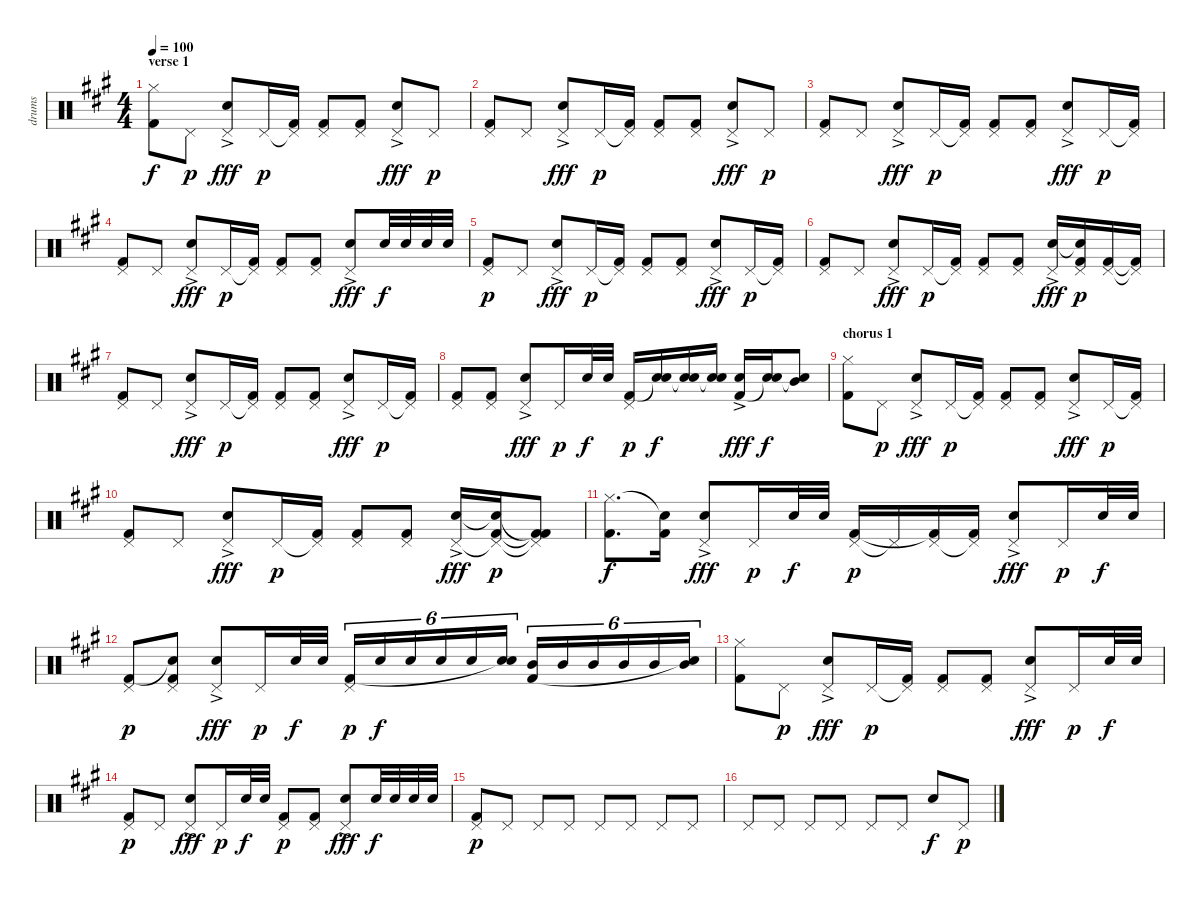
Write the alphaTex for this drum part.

\track ("drums" "drums") {instrument percussion}
\staff {score}
\articulation defaults
\ts (4 4)
\section ("" "verse 1")
\tempo 100
\clef neutral
\ks a
("Hi-Hat (closed)" "Kick (hit) 2").8{dy f} "Pedal Hi-Hat (hit)".8{dy p} ("Pedal Hi-Hat (hit)" "Snare (hit) 2"{ac}).8{dy fff} "Pedal Hi-Hat (hit)".16{dy p} ("Pedal Hi-Hat (hit)"{t} "Kick (hit) 2").16 ("Pedal Hi-Hat (hit)" "Kick (hit) 2").8 ("Pedal Hi-Hat (hit)" "Kick (hit) 2").8 ("Pedal Hi-Hat (hit)" "Snare (hit) 2"{ac}).8{dy fff} "Pedal Hi-Hat (hit)".8{dy p} |
("Pedal Hi-Hat (hit)" "Kick (hit) 2").8 "Pedal Hi-Hat (hit)".8 ("Pedal Hi-Hat (hit)" "Snare (hit) 2"{ac}).8{dy fff} "Pedal Hi-Hat (hit)".16{dy p} ("Pedal Hi-Hat (hit)"{t} "Kick (hit) 2").16 ("Pedal Hi-Hat (hit)" "Kick (hit) 2").8 ("Pedal Hi-Hat (hit)" "Kick (hit) 2").8 ("Pedal Hi-Hat (hit)" "Snare (hit) 2"{ac}).8{dy fff} "Pedal Hi-Hat (hit)".8{dy p} |
("Pedal Hi-Hat (hit)" "Kick (hit) 2").8 "Pedal Hi-Hat (hit)".8 ("Pedal Hi-Hat (hit)" "Snare (hit) 2"{ac}).8{dy fff} "Pedal Hi-Hat (hit)".16{dy p} ("Pedal Hi-Hat (hit)"{t} "Kick (hit) 2").16 ("Pedal Hi-Hat (hit)" "Kick (hit) 2").8 ("Pedal Hi-Hat (hit)" "Kick (hit) 2").8 ("Pedal Hi-Hat (hit)" "Snare (hit) 2"{ac}).8{dy fff} "Pedal Hi-Hat (hit)".16{dy p} ("Pedal Hi-Hat (hit)"{t} "Kick (hit) 2").16 |
("Pedal Hi-Hat (hit)" "Kick (hit) 2").8 "Pedal Hi-Hat (hit)".8 ("Pedal Hi-Hat (hit)" "Snare (hit) 2"{ac}).8{dy fff} "Pedal Hi-Hat (hit)".16{dy p} ("Pedal Hi-Hat (hit)"{t} "Kick (hit) 2").16 ("Pedal Hi-Hat (hit)" "Kick (hit) 2").8 ("Pedal Hi-Hat (hit)" "Kick (hit) 2").8 ("Pedal Hi-Hat (hit)" "Snare (hit) 2"{ac}).8{dy fff} "Snare (hit) 2".32{dy f} "Snare (hit) 2".32 "Snare (hit) 2".32 "Snare (hit) 2".32 |
("Pedal Hi-Hat (hit)" "Kick (hit) 2").8{dy p} "Pedal Hi-Hat (hit)".8 ("Pedal Hi-Hat (hit)" "Snare (hit) 2"{ac}).8{dy fff} "Pedal Hi-Hat (hit)".16{dy p} ("Pedal Hi-Hat (hit)"{t} "Kick (hit) 2").16 ("Pedal Hi-Hat (hit)" "Kick (hit) 2").8 ("Pedal Hi-Hat (hit)" "Kick (hit) 2").8 ("Pedal Hi-Hat (hit)" "Snare (hit) 2"{ac}).8{dy fff} "Pedal Hi-Hat (hit)".16{dy p} ("Pedal Hi-Hat (hit)"{t} "Kick (hit) 2").16 |
("Pedal Hi-Hat (hit)" "Kick (hit) 2").8 "Pedal Hi-Hat (hit)".8 ("Pedal Hi-Hat (hit)" "Snare (hit) 2"{ac}).8{dy fff} "Pedal Hi-Hat (hit)".16{dy p} ("Pedal Hi-Hat (hit)"{t} "Kick (hit) 2").16 ("Pedal Hi-Hat (hit)" "Kick (hit) 2").8 ("Pedal Hi-Hat (hit)" "Kick (hit) 2").8 ("Pedal Hi-Hat (hit)" "Snare (hit) 2"{ac}).16{dy fff} ("Pedal Hi-Hat (hit)" "Snare (hit)"{t} "Kick (hit) 2").16{dy p} ("Pedal Hi-Hat (hit)" "Kick (hit) 2").16 ("Pedal Hi-Hat (hit)"{t} "Kick (hit) 2"{t}).16 |
("Pedal Hi-Hat (hit)" "Kick (hit) 2").8 "Pedal Hi-Hat (hit)".8 ("Pedal Hi-Hat (hit)" "Snare (hit) 2"{ac}).8{dy fff} "Pedal Hi-Hat (hit)".16{dy p} ("Pedal Hi-Hat (hit)"{t} "Kick (hit) 2").16 ("Pedal Hi-Hat (hit)" "Kick (hit) 2").8 ("Pedal Hi-Hat (hit)" "Kick (hit) 2").8 ("Pedal Hi-Hat (hit)" "Snare (hit) 2"{ac}).8{dy fff} "Pedal Hi-Hat (hit)".16{dy p} ("Pedal Hi-Hat (hit)"{t} "Kick (hit) 2").16 |
("Pedal Hi-Hat (hit)" "Kick (hit) 2").8 ("Pedal Hi-Hat (hit)" "Kick (hit) 2").8 ("Pedal Hi-Hat (hit)" "Snare (hit) 2"{ac}).8{dy fff} "Pedal Hi-Hat (hit)".16{dy p} "Snare (hit) 2".32{dy f} "Snare (hit) 2".32 ("Pedal Hi-Hat (hit)" "Kick (hit) 2").16{dy p} ("Snare (hit) 2" "Snare (hit)"{t}).16{dy f} ("Snare (hit) 2" "Snare (hit)"{t}).16 ("Snare (hit) 2" "Snare (hit)"{t}).16 ("Snare (hit) 2"{ac} "Kick (hit) 2").16{dy fff} ("Snare (hit) 2" "Snare (hit)"{t}).16{dy f} ("Mid Tom (hit)" "Snare (hit)"{t}).8 |
\section ("" "chorus 1")
("Hi-Hat (closed)" "Kick (hit) 2").8 "Pedal Hi-Hat (hit)".8{dy p} ("Pedal Hi-Hat (hit)" "Snare (hit) 2"{ac}).8{dy fff} "Pedal Hi-Hat (hit)".16{dy p} ("Pedal Hi-Hat (hit)"{t} "Kick (hit) 2").16 ("Pedal Hi-Hat (hit)" "Kick (hit) 2").8 ("Pedal Hi-Hat (hit)" "Kick (hit) 2").8 ("Pedal Hi-Hat (hit)" "Snare (hit) 2"{ac}).8{dy fff} "Pedal Hi-Hat (hit)".16{dy p} ("Pedal Hi-Hat (hit)"{t} "Kick (hit) 2").16 |
("Pedal Hi-Hat (hit)" "Kick (hit) 2").8 "Pedal Hi-Hat (hit)".8 ("Pedal Hi-Hat (hit)" "Snare (hit) 2"{ac}).8{dy fff} "Pedal Hi-Hat (hit)".16{dy p} ("Pedal Hi-Hat (hit)"{t} "Kick (hit) 2").16 ("Pedal Hi-Hat (hit)" "Kick (hit) 2").8 ("Pedal Hi-Hat (hit)" "Kick (hit) 2").8 ("Pedal Hi-Hat (hit)" "Snare (hit) 2"{ac}).16{dy fff} ("Pedal Hi-Hat (hit)"{t} "Snare (hit)"{t} "Kick (hit) 2").16{dy p} ("Pedal Hi-Hat (hit)"{t} "Kick (hit) 2"{t} "Kick (hit) 2"{t}).8 |
("Hi-Hat (closed)" "Kick (hit) 2").8{d dy f} ("Snare (hit)"{t} "Kick (hit) 2").16 ("Pedal Hi-Hat (hit)" "Snare (hit) 2"{ac}).8{dy fff} "Pedal Hi-Hat (hit)".16{dy p} "Snare (hit) 2".32{dy f} "Snare (hit) 2".32 ("Pedal Hi-Hat (hit)" "Kick (hit) 2").16{dy p} "Pedal Hi-Hat (hit)"{t}.16 ("Pedal Hi-Hat (hit)" "Kick (hit) 2"{t}).16 ("Pedal Hi-Hat (hit)"{t} "Kick (hit) 2").16 ("Pedal Hi-Hat (hit)" "Snare (hit) 2"{ac}).8{dy fff} "Pedal Hi-Hat (hit)".16{dy p} "Snare (hit) 2".32{dy f} "Snare (hit) 2".32 |
("Pedal Hi-Hat (hit)" "Kick (hit) 2").8{dy p} ("Pedal Hi-Hat (hit)" "Snare (hit)"{t} "Kick (hit) 2").8 ("Pedal Hi-Hat (hit)" "Snare (hit) 2"{ac}).8{dy fff} "Pedal Hi-Hat (hit)".16{dy p} "Snare (hit) 2".32{dy f} "Snare (hit) 2".32 ("Pedal Hi-Hat (hit)" "Kick (hit) 2").16{tu (6 4) dy p} "Snare (hit) 2".16{tu (6 4) dy f} "Snare (hit) 2".16{tu (6 4)} "Snare (hit) 2".16{tu (6 4)} "Snare (hit) 2".16{tu (6 4)} ("Snare (hit) 2" "Snare (hit)"{t}).16{tu (6 4)} ("Mid Tom (hit)" "Kick (hit) 2").16{tu (6 4)} "Mid Tom (hit)".16{tu (6 4)} "Mid Tom (hit)".16{tu (6 4)} "Mid Tom (hit)".16{tu (6 4)} "Mid Tom (hit)".16{tu (6 4)} ("Mid Tom (hit)" "Snare (hit)"{t}).16{tu (6 4)} |
("Hi-Hat (closed)" "Kick (hit) 2").8 "Pedal Hi-Hat (hit)".8{dy p} ("Pedal Hi-Hat (hit)" "Snare (hit) 2"{ac}).8{dy fff} "Pedal Hi-Hat (hit)".16{dy p} ("Pedal Hi-Hat (hit)"{t} "Kick (hit) 2").16 ("Pedal Hi-Hat (hit)" "Kick (hit) 2").8 ("Pedal Hi-Hat (hit)" "Kick (hit) 2").8 ("Pedal Hi-Hat (hit)" "Snare (hit) 2"{ac}).8{dy fff} "Pedal Hi-Hat (hit)".16{dy p} "Snare (hit) 2".32{dy f} "Snare (hit) 2".32 |
("Pedal Hi-Hat (hit)" "Kick (hit) 2").8{dy p} "Pedal Hi-Hat (hit)".8 ("Pedal Hi-Hat (hit)" "Snare (hit) 2"{ac}).8{dy fff} "Pedal Hi-Hat (hit)".16{dy p} "Snare (hit) 2".32{dy f} "Snare (hit) 2".32 ("Pedal Hi-Hat (hit)" "Kick (hit) 2").8{dy p} ("Pedal Hi-Hat (hit)" "Kick (hit) 2").8 ("Pedal Hi-Hat (hit)" "Snare (hit) 2"{ac}).8{dy fff} "Snare (hit) 2".32{dy f} "Snare (hit) 2".32 "Snare (hit) 2".32 "Snare (hit) 2".32 |
("Pedal Hi-Hat (hit)" "Kick (hit) 2").8{dy p} "Pedal Hi-Hat (hit)".8 "Pedal Hi-Hat (hit)".8 "Pedal Hi-Hat (hit)".8 "Pedal Hi-Hat (hit)".8 "Pedal Hi-Hat (hit)".8 "Pedal Hi-Hat (hit)".8 "Pedal Hi-Hat (hit)".8 |
"Pedal Hi-Hat (hit)".8 "Pedal Hi-Hat (hit)".8 "Pedal Hi-Hat (hit)".8 "Pedal Hi-Hat (hit)".8 "Pedal Hi-Hat (hit)".8 "Pedal Hi-Hat (hit)".8 "Snare (hit) 2".8{dy f} "Pedal Hi-Hat (hit)".8{dy p}
